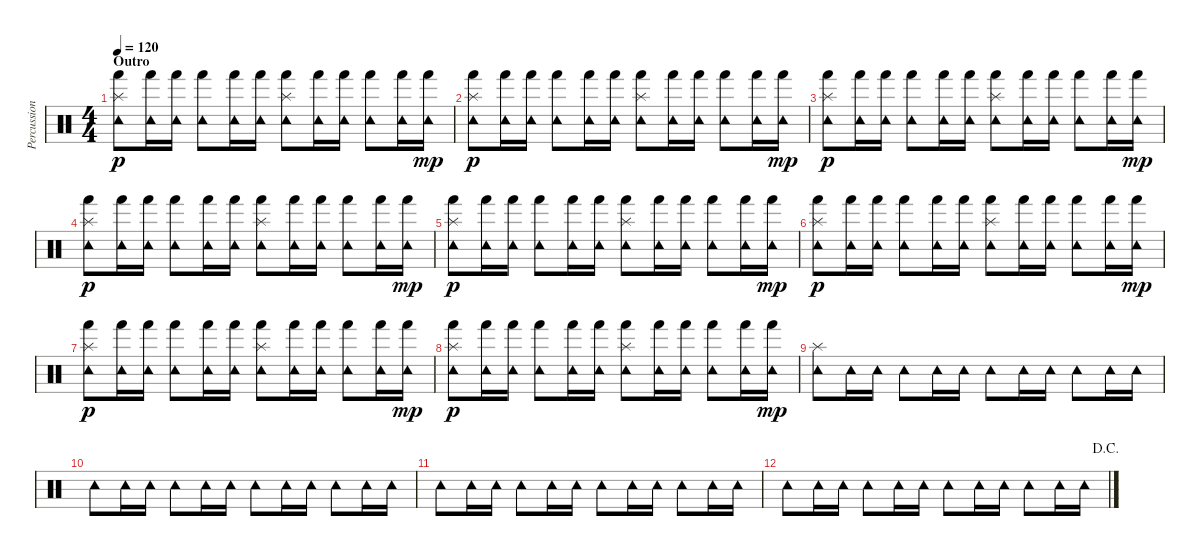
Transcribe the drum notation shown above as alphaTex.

\track ("Percussion 2" "Percussion") {instrument percussion}
\staff {score}
\articulation defaults
\ts (4 4)
\section ("" "Outro")
\tempo 120
\clef neutral
\ks c
("Tambourine (hit)" "Splash (hit)" "Hand (hit)").8{dy p} ("Tambourine (hit)" "Hand (hit)").16 ("Tambourine (hit)" "Hand (hit)").16 ("Tambourine (hit)" "Hand (hit)").8 ("Tambourine (hit)" "Hand (hit)").16 ("Tambourine (hit)" "Hand (hit)").16 ("Tambourine (hit)" "Splash (hit)" "Hand (hit)").8 ("Tambourine (hit)" "Hand (hit)").16 ("Tambourine (hit)" "Hand (hit)").16 ("Tambourine (hit)" "Hand (hit)").8 ("Tambourine (hit)" "Hand (hit)").16 ("Tambourine (hit)" "Hand (hit)").16{dy mp} |
("Tambourine (hit)" "Splash (hit)" "Hand (hit)").8{dy p} ("Tambourine (hit)" "Hand (hit)").16 ("Tambourine (hit)" "Hand (hit)").16 ("Tambourine (hit)" "Hand (hit)").8 ("Tambourine (hit)" "Hand (hit)").16 ("Tambourine (hit)" "Hand (hit)").16 ("Tambourine (hit)" "Splash (hit)" "Hand (hit)").8 ("Tambourine (hit)" "Hand (hit)").16 ("Tambourine (hit)" "Hand (hit)").16 ("Tambourine (hit)" "Hand (hit)").8 ("Tambourine (hit)" "Hand (hit)").16 ("Tambourine (hit)" "Hand (hit)").16{dy mp} |
("Tambourine (hit)" "Splash (hit)" "Hand (hit)").8{dy p} ("Tambourine (hit)" "Hand (hit)").16 ("Tambourine (hit)" "Hand (hit)").16 ("Tambourine (hit)" "Hand (hit)").8 ("Tambourine (hit)" "Hand (hit)").16 ("Tambourine (hit)" "Hand (hit)").16 ("Tambourine (hit)" "Splash (hit)" "Hand (hit)").8 ("Tambourine (hit)" "Hand (hit)").16 ("Tambourine (hit)" "Hand (hit)").16 ("Tambourine (hit)" "Hand (hit)").8 ("Tambourine (hit)" "Hand (hit)").16 ("Tambourine (hit)" "Hand (hit)").16{dy mp} |
("Tambourine (hit)" "Splash (hit)" "Hand (hit)").8{dy p} ("Tambourine (hit)" "Hand (hit)").16 ("Tambourine (hit)" "Hand (hit)").16 ("Tambourine (hit)" "Hand (hit)").8 ("Tambourine (hit)" "Hand (hit)").16 ("Tambourine (hit)" "Hand (hit)").16 ("Tambourine (hit)" "Splash (hit)" "Hand (hit)").8 ("Tambourine (hit)" "Hand (hit)").16 ("Tambourine (hit)" "Hand (hit)").16 ("Tambourine (hit)" "Hand (hit)").8 ("Tambourine (hit)" "Hand (hit)").16 ("Tambourine (hit)" "Hand (hit)").16{dy mp} |
("Tambourine (hit)" "Splash (hit)" "Hand (hit)").8{dy p} ("Tambourine (hit)" "Hand (hit)").16 ("Tambourine (hit)" "Hand (hit)").16 ("Tambourine (hit)" "Hand (hit)").8 ("Tambourine (hit)" "Hand (hit)").16 ("Tambourine (hit)" "Hand (hit)").16 ("Tambourine (hit)" "Splash (hit)" "Hand (hit)").8 ("Tambourine (hit)" "Hand (hit)").16 ("Tambourine (hit)" "Hand (hit)").16 ("Tambourine (hit)" "Hand (hit)").8 ("Tambourine (hit)" "Hand (hit)").16 ("Tambourine (hit)" "Hand (hit)").16{dy mp} |
("Tambourine (hit)" "Splash (hit)" "Hand (hit)").8{dy p} ("Tambourine (hit)" "Hand (hit)").16 ("Tambourine (hit)" "Hand (hit)").16 ("Tambourine (hit)" "Hand (hit)").8 ("Tambourine (hit)" "Hand (hit)").16 ("Tambourine (hit)" "Hand (hit)").16 ("Tambourine (hit)" "Splash (hit)" "Hand (hit)").8 ("Tambourine (hit)" "Hand (hit)").16 ("Tambourine (hit)" "Hand (hit)").16 ("Tambourine (hit)" "Hand (hit)").8 ("Tambourine (hit)" "Hand (hit)").16 ("Tambourine (hit)" "Hand (hit)").16{dy mp} |
("Tambourine (hit)" "Splash (hit)" "Hand (hit)").8{dy p} ("Tambourine (hit)" "Hand (hit)").16 ("Tambourine (hit)" "Hand (hit)").16 ("Tambourine (hit)" "Hand (hit)").8 ("Tambourine (hit)" "Hand (hit)").16 ("Tambourine (hit)" "Hand (hit)").16 ("Tambourine (hit)" "Splash (hit)" "Hand (hit)").8 ("Tambourine (hit)" "Hand (hit)").16 ("Tambourine (hit)" "Hand (hit)").16 ("Tambourine (hit)" "Hand (hit)").8 ("Tambourine (hit)" "Hand (hit)").16 ("Tambourine (hit)" "Hand (hit)").16{dy mp} |
("Tambourine (hit)" "Splash (hit)" "Hand (hit)").8{dy p} ("Tambourine (hit)" "Hand (hit)").16 ("Tambourine (hit)" "Hand (hit)").16 ("Tambourine (hit)" "Hand (hit)").8 ("Tambourine (hit)" "Hand (hit)").16 ("Tambourine (hit)" "Hand (hit)").16 ("Tambourine (hit)" "Splash (hit)" "Hand (hit)").8 ("Tambourine (hit)" "Hand (hit)").16 ("Tambourine (hit)" "Hand (hit)").16 ("Tambourine (hit)" "Hand (hit)").8 ("Tambourine (hit)" "Hand (hit)").16 ("Tambourine (hit)" "Hand (hit)").16{dy mp} |
("Tambourine (hit)" "Splash (hit)").8 "Tambourine (hit)".16 "Tambourine (hit)".16 "Tambourine (hit)".8 "Tambourine (hit)".16 "Tambourine (hit)".16 "Tambourine (hit)".8 "Tambourine (hit)".16 "Tambourine (hit)".16 "Tambourine (hit)".8 "Tambourine (hit)".16 "Tambourine (hit)".16 |
"Tambourine (hit)".8 "Tambourine (hit)".16 "Tambourine (hit)".16 "Tambourine (hit)".8 "Tambourine (hit)".16 "Tambourine (hit)".16 "Tambourine (hit)".8 "Tambourine (hit)".16 "Tambourine (hit)".16 "Tambourine (hit)".8 "Tambourine (hit)".16 "Tambourine (hit)".16 |
"Tambourine (hit)".8 "Tambourine (hit)".16 "Tambourine (hit)".16 "Tambourine (hit)".8 "Tambourine (hit)".16 "Tambourine (hit)".16 "Tambourine (hit)".8 "Tambourine (hit)".16 "Tambourine (hit)".16 "Tambourine (hit)".8 "Tambourine (hit)".16 "Tambourine (hit)".16 |
\jump dacapo "Tambourine (hit)".8 "Tambourine (hit)".16 "Tambourine (hit)".16 "Tambourine (hit)".8 "Tambourine (hit)".16 "Tambourine (hit)".16 "Tambourine (hit)".8 "Tambourine (hit)".16 "Tambourine (hit)".16 "Tambourine (hit)".8 "Tambourine (hit)".16 "Tambourine (hit)".16
